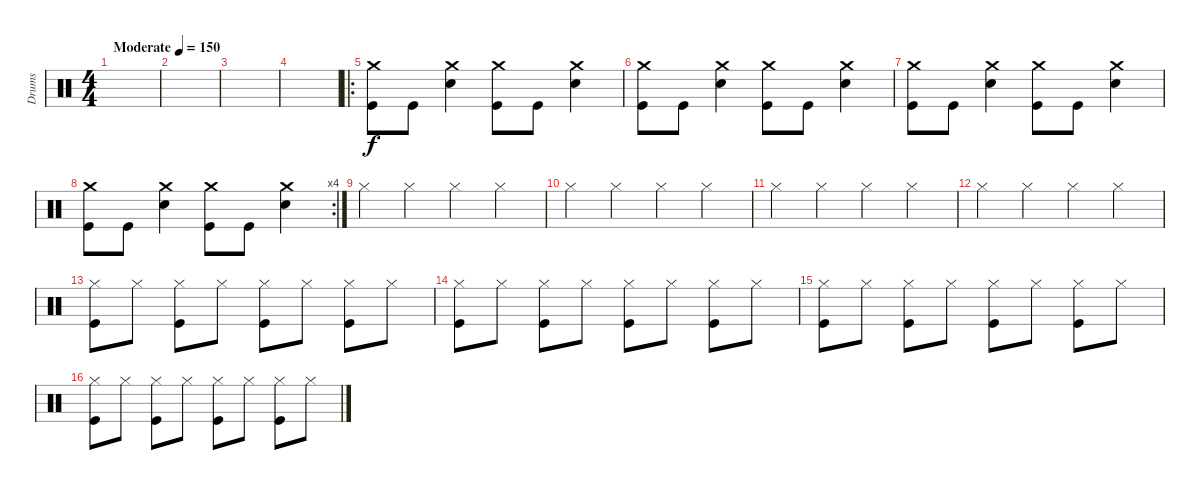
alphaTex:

\track ("Drums" "Drums") {instrument percussion}
\staff {score}
\articulation defaults
\ts (4 4)
\tempo (150 "Moderate")
\clef neutral
\ks c
|
|
|
|
\ro
("Crash medium (hit)" "Kick (hit)").8 "Kick (hit)".8 ("Crash medium (hit)" "Snare (hit) 2").4 ("Crash medium (hit)" "Kick (hit)").8 "Kick (hit)".8 ("Crash medium (hit)" "Snare (hit) 2").4 |
("Crash medium (hit)" "Kick (hit)").8 "Kick (hit)".8 ("Crash medium (hit)" "Snare (hit) 2").4 ("Crash medium (hit)" "Kick (hit)").8 "Kick (hit)".8 ("Crash medium (hit)" "Snare (hit) 2").4 |
("Crash medium (hit)" "Kick (hit)").8 "Kick (hit)".8 ("Crash medium (hit)" "Snare (hit) 2").4 ("Crash medium (hit)" "Kick (hit)").8 "Kick (hit)".8 ("Crash medium (hit)" "Snare (hit) 2").4 |
\rc 4
("Crash medium (hit)" "Kick (hit)").8 "Kick (hit)".8 ("Crash medium (hit)" "Snare (hit) 2").4 ("Crash medium (hit)" "Kick (hit)").8 "Kick (hit)".8 ("Crash medium (hit)" "Snare (hit) 2").4 |
"Hi-Hat (closed)".4 "Hi-Hat (closed)".4 "Hi-Hat (closed)".4 "Hi-Hat (closed)".4 |
"Hi-Hat (closed)".4 "Hi-Hat (closed)".4 "Hi-Hat (closed)".4 "Hi-Hat (closed)".4 |
"Hi-Hat (closed)".4 "Hi-Hat (closed)".4 "Hi-Hat (closed)".4 "Hi-Hat (closed)".4 |
"Hi-Hat (closed)".4 "Hi-Hat (closed)".4 "Hi-Hat (closed)".4 "Hi-Hat (closed)".4 |
("Hi-Hat (closed)" "Kick (hit)").8 "Hi-Hat (closed)".8 ("Hi-Hat (closed)" "Kick (hit)").8 "Hi-Hat (closed)".8 ("Hi-Hat (closed)" "Kick (hit)").8 "Hi-Hat (closed)".8 ("Hi-Hat (closed)" "Kick (hit)").8 "Hi-Hat (closed)".8 |
("Hi-Hat (closed)" "Kick (hit)").8 "Hi-Hat (closed)".8 ("Hi-Hat (closed)" "Kick (hit)").8 "Hi-Hat (closed)".8 ("Hi-Hat (closed)" "Kick (hit)").8 "Hi-Hat (closed)".8 ("Hi-Hat (closed)" "Kick (hit)").8 "Hi-Hat (closed)".8 |
("Hi-Hat (closed)" "Kick (hit)").8 "Hi-Hat (closed)".8 ("Hi-Hat (closed)" "Kick (hit)").8 "Hi-Hat (closed)".8 ("Hi-Hat (closed)" "Kick (hit)").8 "Hi-Hat (closed)".8 ("Hi-Hat (closed)" "Kick (hit)").8 "Hi-Hat (closed)".8 |
("Hi-Hat (closed)" "Kick (hit)").8 "Hi-Hat (closed)".8 ("Hi-Hat (closed)" "Kick (hit)").8 "Hi-Hat (closed)".8 ("Hi-Hat (closed)" "Kick (hit)").8 "Hi-Hat (closed)".8 ("Hi-Hat (closed)" "Kick (hit)").8 "Hi-Hat (closed)".8
